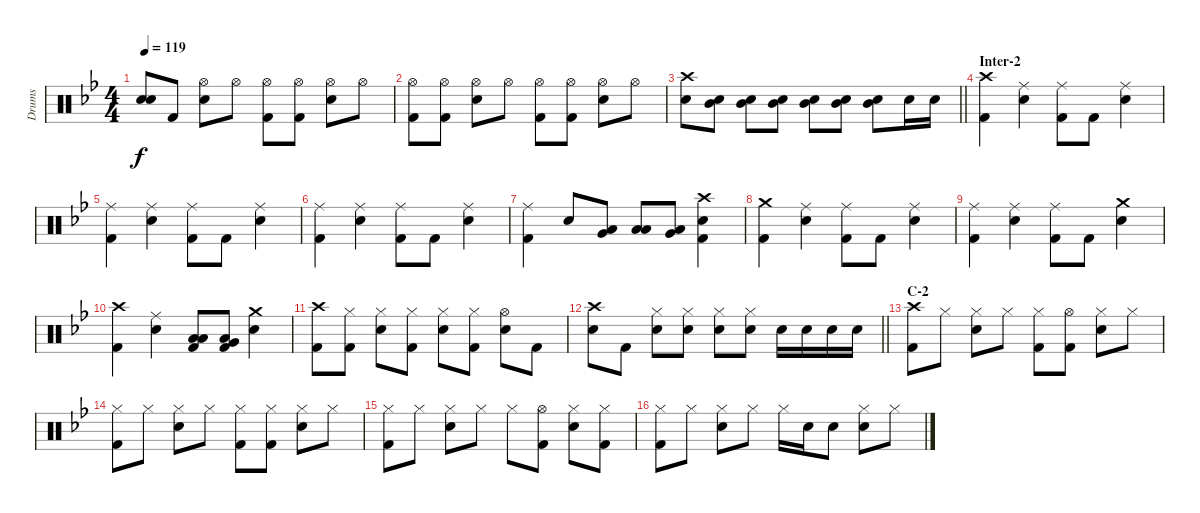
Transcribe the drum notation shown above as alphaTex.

\track ("Drums" "Drums") {instrument percussion}
\staff {score}
\articulation defaults
\ts (4 4)
\tempo 119
\clef neutral
\ks bb
("Snare (hit)"{t} "Snare (hit)"{t}).8{dy f} "Kick (hit) 2".8 ("Hi-Hat (open)" "Snare (hit) 2").8 "Hi-Hat (open)".8 ("Hi-Hat (open)" "Kick (hit) 2").8 ("Hi-Hat (open)" "Kick (hit) 2").8 ("Hi-Hat (open)" "Snare (hit) 2").8 "Hi-Hat (open)".8 |
("Hi-Hat (open)" "Kick (hit) 2").8 ("Hi-Hat (open)" "Kick (hit) 2").8 ("Hi-Hat (open)" "Snare (hit) 2").8 "Hi-Hat (open)".8 ("Hi-Hat (open)" "Kick (hit) 2").8 ("Hi-Hat (open)" "Kick (hit) 2").8 ("Hi-Hat (open)" "Snare (hit) 2").8 "Hi-Hat (open)".8 |
\barLineRight lightlight
("Crash high (hit)" "Snare (hit) 2").8 ("Mid Tom (hit)" "Snare (hit) 2").8 ("Mid Tom (hit)" "Snare (hit) 2").8 ("Mid Tom (hit)" "Snare (hit) 2").8 ("Mid Tom (hit)" "Snare (hit) 2").8 ("Mid Tom (hit)" "Snare (hit) 2").8 ("Mid Tom (hit)" "Snare (hit) 2").8 "Snare (hit) 2".16 "Snare (hit) 2".16 |
\section ("" "Inter-2")
("Crash high (hit)" "Kick (hit) 2").4 ("Ride (middle)" "Snare (hit) 2").4 ("Ride (middle)" "Kick (hit) 2").8 "Kick (hit) 2".8 ("Ride (middle)" "Snare (hit) 2").4 |
("Ride (middle)" "Kick (hit) 2").4 ("Ride (middle)" "Snare (hit) 2").4 ("Ride (middle)" "Kick (hit) 2").8 "Kick (hit) 2".8 ("Ride (middle)" "Snare (hit) 2").4 |
("Ride (middle)" "Kick (hit) 2").4 ("Ride (middle)" "Snare (hit) 2").4 ("Ride (middle)" "Kick (hit) 2").8 "Kick (hit) 2".8 ("Ride (middle)" "Snare (hit) 2").4 |
("Ride (middle)" "Kick (hit) 2").4 "Snare (hit) 2".8 ("Low Tom (hit)" "Very Low Tom (hit)").8 ("Low Floor Tom (hit)" "Low Tom (hit)").8 ("Low Floor Tom (hit)" "Very Low Tom (hit)").8 ("Crash high (hit)" "Snare (hit) 2" "Kick (hit) 2").4 |
("Crash medium (hit)" "Kick (hit) 2").4 ("Ride (middle)" "Snare (hit) 2").4 ("Ride (middle)" "Kick (hit) 2").8 "Kick (hit) 2".8 ("Ride (middle)" "Snare (hit) 2").4 |
("Ride (middle)" "Kick (hit) 2").4 ("Ride (middle)" "Snare (hit) 2").4 ("Ride (middle)" "Kick (hit) 2").8 "Kick (hit) 2".8 ("Crash medium (hit)" "Snare (hit) 2").4 |
("Crash high (hit)" "Kick (hit) 2").4 ("Ride (middle)" "Snare (hit) 2").4 ("Low Floor Tom (hit)" "Low Tom (hit)" "Kick (hit) 2").8 ("Low Floor Tom (hit)" "Very Low Tom (hit)" "Kick (hit) 2").8 ("Crash medium (hit)" "Snare (hit) 2").4 |
("Crash high (hit)" "Kick (hit) 2").8 ("Hi-Hat (closed)" "Kick (hit) 2").8 ("Hi-Hat (closed)" "Snare (hit) 2").8 ("Hi-Hat (closed)" "Kick (hit) 2").8 ("Hi-Hat (closed)" "Snare (hit) 2").8 ("Hi-Hat (closed)" "Kick (hit) 2").8 ("Hi-Hat (open)" "Snare (hit) 2").8 "Kick (hit) 2".8 |
\barLineRight lightlight
("Crash high (hit)" "Snare (hit) 2").8 "Kick (hit) 2".8 ("Hi-Hat (closed)" "Snare (hit) 2").8 ("Hi-Hat (closed)" "Snare (hit) 2").8 ("Hi-Hat (closed)" "Snare (hit) 2").8 ("Hi-Hat (closed)" "Snare (hit) 2").8 "Snare (hit) 2".16 "Snare (hit) 2".16 "Snare (hit) 2".16 "Snare (hit) 2".16 |
\section ("" "C-2")
("Crash high (hit)" "Kick (hit) 2").8 "Hi-Hat (closed)".8 ("Hi-Hat (closed)" "Snare (hit) 2").8 "Hi-Hat (closed)".8 ("Hi-Hat (closed)" "Kick (hit) 2").8 ("Hi-Hat (open)" "Kick (hit) 2").8 ("Hi-Hat (closed)" "Snare (hit) 2").8 "Hi-Hat (closed)".8 |
("Hi-Hat (closed)" "Kick (hit) 2").8 "Hi-Hat (closed)".8 ("Hi-Hat (closed)" "Snare (hit) 2").8 "Hi-Hat (closed)".8 ("Hi-Hat (closed)" "Kick (hit) 2").8 ("Hi-Hat (closed)" "Kick (hit) 2").8 ("Hi-Hat (closed)" "Snare (hit) 2").8 "Hi-Hat (closed)".8 |
("Hi-Hat (closed)" "Kick (hit) 2").8 "Hi-Hat (closed)".8 ("Hi-Hat (closed)" "Snare (hit) 2").8 "Hi-Hat (closed)".8 "Hi-Hat (closed)".8 ("Hi-Hat (open)" "Kick (hit) 2").8 ("Hi-Hat (closed)" "Snare (hit) 2").8 ("Hi-Hat (closed)" "Kick (hit) 2").8 |
("Hi-Hat (closed)" "Kick (hit) 2").8 "Hi-Hat (closed)".8 ("Hi-Hat (closed)" "Snare (hit) 2").8 "Hi-Hat (closed)".8 "Hi-Hat (closed)".16 "Snare (hit) 2".16 "Snare (hit) 2".8 ("Hi-Hat (closed)" "Snare (hit) 2").8 "Hi-Hat (closed)".8
